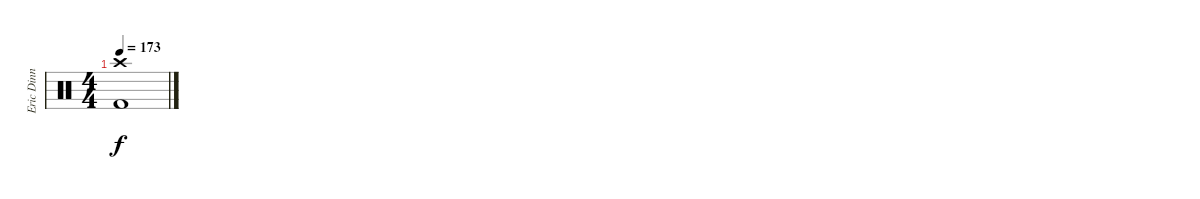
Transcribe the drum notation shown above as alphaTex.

\track ("Eric Dinn" "Eric Dinn") {instrument percussion}
\staff {score}
\articulation defaults
\ts (4 4)
\tempo 173
\clef neutral
\ks c
("Crash high (hit)" "Kick (hit) 2").1{dy f}
